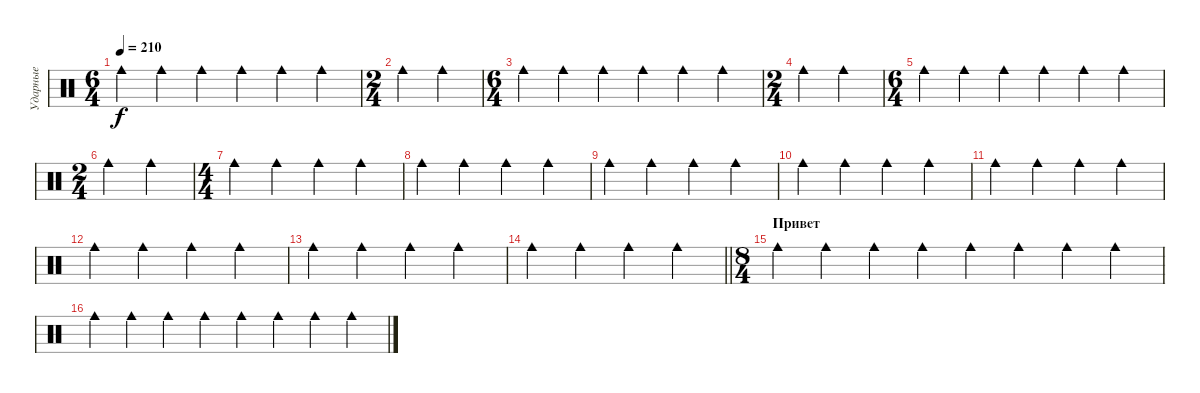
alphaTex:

\track ("Ударные" "Ударные") {mute instrument percussion}
\staff {score}
\articulation defaults
\ts (6 4)
\tempo 210
\clef neutral
\ks c "Cowbell medium (hit)".4{dy f} "Cowbell medium (hit)".4 "Cowbell medium (hit)".4 "Cowbell medium (hit)".4 "Cowbell medium (hit)".4 "Cowbell medium (hit)".4
|
\ts (2 4)
"Cowbell medium (hit)".4 "Cowbell medium (hit)".4 |
\ts (6 4)
"Cowbell medium (hit)".4 "Cowbell medium (hit)".4 "Cowbell medium (hit)".4 "Cowbell medium (hit)".4 "Cowbell medium (hit)".4 "Cowbell medium (hit)".4 |
\ts (2 4)
"Cowbell medium (hit)".4 "Cowbell medium (hit)".4 |
\ts (6 4)
"Cowbell medium (hit)".4 "Cowbell medium (hit)".4 "Cowbell medium (hit)".4 "Cowbell medium (hit)".4 "Cowbell medium (hit)".4 "Cowbell medium (hit)".4 |
\ts (2 4)
"Cowbell medium (hit)".4 "Cowbell medium (hit)".4 |
\ts (4 4)
"Cowbell medium (hit)".4 "Cowbell medium (hit)".4 "Cowbell medium (hit)".4 "Cowbell medium (hit)".4 |
"Cowbell medium (hit)".4 "Cowbell medium (hit)".4 "Cowbell medium (hit)".4 "Cowbell medium (hit)".4 |
"Cowbell medium (hit)".4 "Cowbell medium (hit)".4 "Cowbell medium (hit)".4 "Cowbell medium (hit)".4 |
"Cowbell medium (hit)".4 "Cowbell medium (hit)".4 "Cowbell medium (hit)".4 "Cowbell medium (hit)".4 |
"Cowbell medium (hit)".4 "Cowbell medium (hit)".4 "Cowbell medium (hit)".4 "Cowbell medium (hit)".4 |
"Cowbell medium (hit)".4 "Cowbell medium (hit)".4 "Cowbell medium (hit)".4 "Cowbell medium (hit)".4 |
"Cowbell medium (hit)".4 "Cowbell medium (hit)".4 "Cowbell medium (hit)".4 "Cowbell medium (hit)".4 |
\barLineRight lightlight "Cowbell medium (hit)".4 "Cowbell medium (hit)".4 "Cowbell medium (hit)".4 "Cowbell medium (hit)".4
|
\ts (8 4)
\section ("" "Привет")
"Cowbell medium (hit)".4 "Cowbell medium (hit)".4 "Cowbell medium (hit)".4 "Cowbell medium (hit)".4 "Cowbell medium (hit)".4 "Cowbell medium (hit)".4 "Cowbell medium (hit)".4 "Cowbell medium (hit)".4 |
"Cowbell medium (hit)".4 "Cowbell medium (hit)".4 "Cowbell medium (hit)".4 "Cowbell medium (hit)".4 "Cowbell medium (hit)".4 "Cowbell medium (hit)".4 "Cowbell medium (hit)".4 "Cowbell medium (hit)".4
